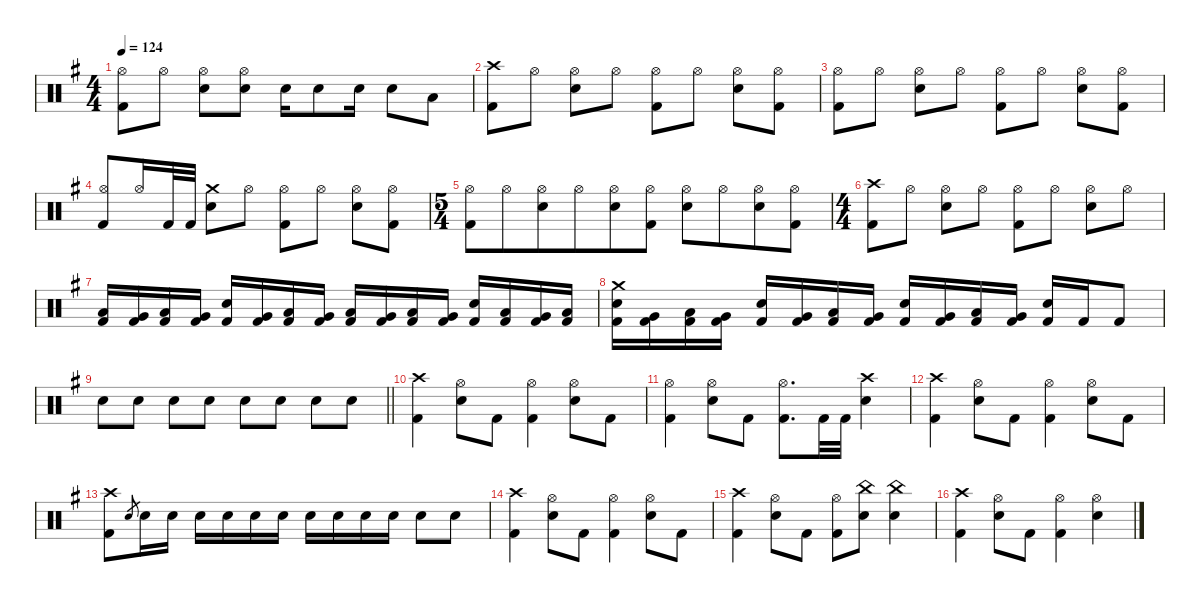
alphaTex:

\defaultSystemsLayout 4
\hideDynamics
\bracketExtendMode nobrackets
\singleTrackTrackNamePolicy hidden
\multiTrackTrackNamePolicy hidden
\otherSystemsTrackNameOrientation horizontal
\track ("Drums" "drm.") {defaultSystemsLayout 4 instrument percussion}
\staff {score}
\articulation defaults
\ts (4 4)
\tempo 124
\clef neutral
\ks g
("Hi-Hat (open)"{acc forcenatural} "Kick (hit) 2"{acc forcenatural}).8{dy mp beam Down} "Hi-Hat (open)"{acc forcenatural}.8{beam Down} ("Hi-Hat (open)"{acc forcenatural} "Snare (hit) 2"{acc forcenatural}).8{beam Down} ("Hi-Hat (open)"{acc forcenatural} "Snare (hit) 2"{acc forcenatural}).8{beam Down} "Snare (hit) 2"{acc forcenatural}.16{dy ff beam Down} "Snare (hit) 2"{acc forcenatural}.8{beam Down} "Snare (hit) 2"{acc forcenatural}.16{beam Down} "Snare (hit) 2"{acc forcenatural}.8{beam Down} "Low Tom (hit)"{acc forcenatural}.8{dy f beam Down} |
("Crash high (hit)"{acc forcenatural} "Kick (hit) 2"{acc forcenatural}).8{dy mf beam Down} "Hi-Hat (open)"{acc forcenatural}.8{beam Down} ("Hi-Hat (open)"{acc forcenatural} "Snare (hit) 2"{acc forcenatural}).8{beam Down} "Hi-Hat (open)"{acc forcenatural}.8{beam Down} ("Hi-Hat (open)"{acc forcenatural} "Kick (hit) 2"{acc forcenatural}).8{beam Down} "Hi-Hat (open)"{acc forcenatural}.8{beam Down} ("Hi-Hat (open)"{acc forcenatural} "Snare (hit) 2"{acc forcenatural}).8{beam Down} ("Hi-Hat (open)"{acc forcenatural} "Kick (hit) 2"{acc forcenatural}).8{beam Down} |
("Hi-Hat (open)"{acc forcenatural} "Kick (hit) 2"{acc forcenatural}).8{beam Down} "Hi-Hat (open)"{acc forcenatural}.8{beam Down} ("Hi-Hat (open)"{acc forcenatural} "Snare (hit) 2"{acc forcenatural}).8{beam Down} "Hi-Hat (open)"{acc forcenatural}.8{beam Down} ("Hi-Hat (open)"{acc forcenatural} "Kick (hit) 2"{acc forcenatural}).8{beam Down} "Hi-Hat (open)"{acc forcenatural}.8{beam Down} ("Hi-Hat (open)"{acc forcenatural} "Snare (hit) 2"{acc forcenatural}).8{beam Down} ("Hi-Hat (open)"{acc forcenatural} "Kick (hit) 2"{acc forcenatural}).8{beam Down} |
("Hi-Hat (open)"{acc forcenatural} "Kick (hit) 2"{acc forcenatural}).8{beam Up} "Hi-Hat (open)"{acc forcenatural}.16{beam Up} "Kick (hit) 2"{acc forcenatural}.32{dy ff beam Up} "Kick (hit) 2"{acc forcenatural}.32{beam Up} ("Crash medium (hit)"{acc forcenatural} "Snare (hit) 2"{acc forcenatural}).8{dy mf beam Down} "Hi-Hat (open)"{acc forcenatural}.8{beam Down} ("Hi-Hat (open)"{acc forcenatural} "Kick (hit) 2"{acc forcenatural}).8{beam Down} "Hi-Hat (open)"{acc forcenatural}.8{beam Down} ("Hi-Hat (open)"{acc forcenatural} "Snare (hit) 2"{acc forcenatural}).8{beam Down} ("Hi-Hat (open)"{acc forcenatural} "Kick (hit) 2"{acc forcenatural}).8{beam Down} |
\ts (5 4)
\beaming (8 6 4)
("Hi-Hat (open)"{acc forcenatural} "Kick (hit) 2"{acc forcenatural}).8{beam Down} "Hi-Hat (open)"{acc forcenatural}.8{beam Down} ("Hi-Hat (open)"{acc forcenatural} "Snare (hit) 2"{acc forcenatural}).8{beam Down} "Hi-Hat (open)"{acc forcenatural}.8{beam Down} ("Hi-Hat (open)"{acc forcenatural} "Snare (hit) 2"{acc forcenatural}).8{beam Down} ("Hi-Hat (open)"{acc forcenatural} "Kick (hit) 2"{acc forcenatural}).8{beam Down} ("Hi-Hat (open)"{acc forcenatural} "Snare (hit) 2"{acc forcenatural}).8{beam Down} "Hi-Hat (open)"{acc forcenatural}.8{beam Down} ("Hi-Hat (open)"{acc forcenatural} "Snare (hit) 2"{acc forcenatural}).8{beam Down} ("Hi-Hat (open)"{acc forcenatural} "Kick (hit) 2"{acc forcenatural}).8{beam Down} |
\ts (4 4)
\beaming (8 2 2 2 2)
("Crash high (hit)"{acc forcenatural} "Kick (hit) 2"{acc forcenatural}).8{beam Down} "Hi-Hat (open)"{acc forcenatural}.8{beam Down} ("Hi-Hat (open)"{acc forcenatural} "Snare (hit) 2"{acc forcenatural}).8{beam Down} "Hi-Hat (open)"{acc forcenatural}.8{beam Down} ("Hi-Hat (open)"{acc forcenatural} "Kick (hit) 2"{acc forcenatural}).8{beam Down} "Hi-Hat (open)"{acc forcenatural}.8{beam Down} ("Hi-Hat (open)"{acc forcenatural} "Snare (hit) 2"{acc forcenatural}).8{beam Down} "Hi-Hat (open)"{acc forcenatural}.8{beam Down} |
("Low Tom (hit)"{acc forcenatural} "Kick (hit) 2"{acc forcenatural}).16{dy f beam Up} ("Very Low Tom (hit)"{acc forcenatural} "Kick (hit) 2"{acc forcenatural}).16{beam Up} ("Low Tom (hit)"{acc forcenatural} "Kick (hit) 2"{acc forcenatural}).16{beam Up} ("Very Low Tom (hit)"{acc forcenatural} "Kick (hit) 2"{acc forcenatural}).16{beam Up} ("Snare (hit) 2"{acc forcenatural} "Kick (hit) 2"{acc forcenatural}).16{dy ff beam Up} ("Very Low Tom (hit)"{acc forcenatural} "Kick (hit) 2"{acc forcenatural}).16{dy f beam Up} ("Low Tom (hit)"{acc forcenatural} "Kick (hit) 2"{acc forcenatural}).16{beam Up} ("Very Low Tom (hit)"{acc forcenatural} "Kick (hit) 2"{acc forcenatural}).16{beam Up} ("Low Tom (hit)"{acc forcenatural} "Kick (hit) 2"{acc forcenatural}).16{beam Up} ("Very Low Tom (hit)"{acc forcenatural} "Kick (hit) 2"{acc forcenatural}).16{beam Up} ("Low Tom (hit)"{acc forcenatural} "Kick (hit) 2"{acc forcenatural}).16{beam Up} ("Very Low Tom (hit)"{acc forcenatural} "Kick (hit) 2"{acc forcenatural}).16{beam Up} ("Snare (hit) 2"{acc forcenatural} "Kick (hit) 2"{acc forcenatural}).16{dy ff beam Up} ("Low Tom (hit)"{acc forcenatural} "Kick (hit) 2"{acc forcenatural}).16{dy f beam Up} ("Very Low Tom (hit)"{acc forcenatural} "Kick (hit) 2"{acc forcenatural}).16{beam Up} ("Low Tom (hit)"{acc forcenatural} "Kick (hit) 2"{acc forcenatural}).16{beam Up} |
("Crash medium (hit)"{acc forcenatural} "Snare (hit) 2"{acc forcenatural} "Kick (hit) 2"{acc forcenatural}).16{dy mf beam Down} ("Very Low Tom (hit)"{acc forcenatural} "Kick (hit) 2"{acc forcenatural}).16{dy f beam Down} ("Low Tom (hit)"{acc forcenatural} "Kick (hit) 2"{acc forcenatural}).16{beam Down} ("Very Low Tom (hit)"{acc forcenatural} "Kick (hit) 2"{acc forcenatural}).16{beam Down} ("Snare (hit) 2"{acc forcenatural} "Kick (hit) 2"{acc forcenatural}).16{dy ff beam Up} ("Very Low Tom (hit)"{acc forcenatural} "Kick (hit) 2"{acc forcenatural}).16{dy f beam Up} ("Low Tom (hit)"{acc forcenatural} "Kick (hit) 2"{acc forcenatural}).16{beam Up} ("Very Low Tom (hit)"{acc forcenatural} "Kick (hit) 2"{acc forcenatural}).16{beam Up} ("Snare (hit) 2"{acc forcenatural} "Kick (hit) 2"{acc forcenatural}).16{dy ff beam Up} ("Very Low Tom (hit)"{acc forcenatural} "Kick (hit) 2"{acc forcenatural}).16{dy f beam Up} ("Low Tom (hit)"{acc forcenatural} "Kick (hit) 2"{acc forcenatural}).16{beam Up} ("Very Low Tom (hit)"{acc forcenatural} "Kick (hit) 2"{acc forcenatural}).16{beam Up} ("Snare (hit) 2"{acc forcenatural} "Kick (hit) 2"{acc forcenatural}).16{dy ff beam Up} "Kick (hit) 2"{acc forcenatural}.16{beam Up} "Kick (hit) 2"{acc forcenatural}.8{beam Up} |
\barLineRight lightlight "Snare (hit) 2"{acc forcenatural}.8{beam Down} "Snare (hit) 2"{acc forcenatural}.8{beam Down} "Snare (hit) 2"{acc forcenatural}.8{beam Down} "Snare (hit) 2"{acc forcenatural}.8{beam Down} "Snare (hit) 2"{acc forcenatural}.8{beam Down} "Snare (hit) 2"{acc forcenatural}.8{beam Down} "Snare (hit) 2"{acc forcenatural}.8{beam Down} "Snare (hit) 2"{acc forcenatural}.8{beam Down}
|
("Crash high (hit)"{acc forcenatural} "Kick (hit) 2"{acc forcenatural}).4{dy mf beam Down} ("Hi-Hat (open)"{acc forcenatural} "Snare (hit) 2"{acc forcenatural}).8{beam Down} "Kick (hit) 2"{acc forcenatural}.8{dy ff beam Down} ("Hi-Hat (open)"{acc forcenatural} "Kick (hit) 2"{acc forcenatural}).4{dy mf beam Down} ("Hi-Hat (open)"{acc forcenatural} "Snare (hit) 2"{acc forcenatural}).8{beam Down} "Kick (hit) 2"{acc forcenatural}.8{dy ff beam Down} |
("Hi-Hat (open)"{acc forcenatural} "Kick (hit) 2"{acc forcenatural}).4{dy mf beam Down} ("Hi-Hat (open)"{acc forcenatural} "Snare (hit) 2"{acc forcenatural}).8{beam Down} "Kick (hit) 2"{acc forcenatural}.8{dy ff beam Down} ("Hi-Hat (open)"{acc forcenatural} "Kick (hit) 2"{acc forcenatural}).8{d dy mf beam Down} "Kick (hit) 2"{acc forcenatural}.32{dy ff beam Down} "Kick (hit) 2"{acc forcenatural}.32{beam Down} ("Crash high (hit)"{acc forcenatural} "Snare (hit) 2"{acc forcenatural}).4{dy mf beam Down} |
("Crash high (hit)"{acc forcenatural} "Kick (hit) 2"{acc forcenatural}).4{beam Down} ("Hi-Hat (open)"{acc forcenatural} "Snare (hit) 2"{acc forcenatural}).8{beam Down} "Kick (hit) 2"{acc forcenatural}.8{dy ff beam Down} ("Hi-Hat (open)"{acc forcenatural} "Kick (hit) 2"{acc forcenatural}).4{dy mf beam Down} ("Hi-Hat (open)"{acc forcenatural} "Snare (hit) 2"{acc forcenatural}).8{beam Down} "Kick (hit) 2"{acc forcenatural}.8{dy ff beam Down} |
("Crash high (hit)"{acc forcenatural} "Kick (hit) 2"{acc forcenatural}).8{dy mf beam Down} "Electric Snare (hit)"{acc forcenatural}.8{gr dy mp beam Up} "Snare (hit) 2"{acc forcenatural}.16{dy ff beam Down} "Snare (hit) 2"{acc forcenatural}.16{dy p beam Down} "Snare (hit) 2"{acc forcenatural}.16{dy ff beam Down} "Snare (hit) 2"{acc forcenatural}.16{dy f beam Down} "Snare (hit) 2"{acc forcenatural}.16{dy p beam Down} "Snare (hit) 2"{acc forcenatural}.16{dy ff beam Down} "Snare (hit) 2"{acc forcenatural}.16{dy f beam Down} "Snare (hit) 2"{acc forcenatural}.16{dy p beam Down} "Snare (hit) 2"{acc forcenatural}.16{dy ff beam Down} "Snare (hit) 2"{acc forcenatural}.16{dy p beam Down} "Snare (hit) 2"{acc forcenatural}.8{dy ff beam Down} "Snare (hit) 2"{acc forcenatural}.8{beam Down} |
("Crash high (hit)"{acc forcenatural} "Kick (hit) 2"{acc forcenatural}).4{dy mf beam Down} ("Hi-Hat (open)"{acc forcenatural} "Snare (hit) 2"{acc forcenatural}).8{beam Down} "Kick (hit) 2"{acc forcenatural}.8{dy ff beam Down} ("Hi-Hat (open)"{acc forcenatural} "Kick (hit) 2"{acc forcenatural}).4{dy mf beam Down} ("Hi-Hat (open)"{acc forcenatural} "Snare (hit) 2"{acc forcenatural}).8{beam Down} "Kick (hit) 2"{acc forcenatural}.8{dy ff beam Down} |
("Crash high (hit)"{acc forcenatural} "Kick (hit) 2"{acc forcenatural}).4{dy mf beam Down} ("Hi-Hat (open)"{acc forcenatural} "Snare (hit) 2"{acc forcenatural}).8{beam Down} "Kick (hit) 2"{acc forcenatural}.8{dy ff beam Down} ("Hi-Hat (open)"{acc forcenatural} "Kick (hit) 2"{acc forcenatural}).8{dy mf beam Down} ("China (hit)"{acc forcenatural} "Snare (hit) 2"{acc forcenatural}).8{beam Down} ("China (hit)"{acc forcenatural} "Snare (hit) 2"{acc forcenatural}).4{beam Down} |
("Crash high (hit)"{acc forcenatural} "Kick (hit) 2"{acc forcenatural}).4{beam Down} ("Hi-Hat (open)"{acc forcenatural} "Snare (hit) 2"{acc forcenatural}).8{beam Down} "Kick (hit) 2"{acc forcenatural}.8{dy ff beam Down} ("Hi-Hat (open)"{acc forcenatural} "Kick (hit) 2"{acc forcenatural}).4{dy mf beam Down} ("Hi-Hat (open)"{acc forcenatural} "Snare (hit) 2"{acc forcenatural}).4{beam Down}
